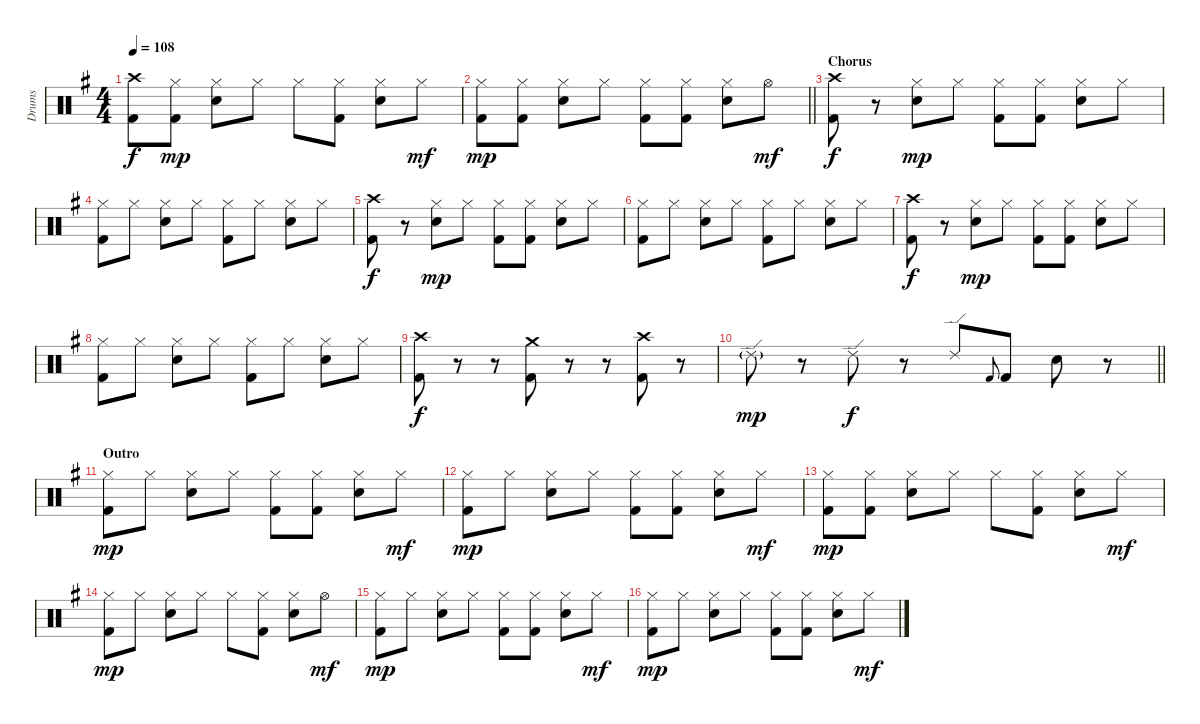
\track ("Drums" "Drums") {instrument percussion}
\staff {score}
\articulation defaults
\ts (4 4)
\tempo 108
\clef neutral
\ks g
("Crash high (hit)" "Kick (hit) 2").8{dy f} ("Hi-Hat (closed)" "Kick (hit) 2").8{dy mp} ("Hi-Hat (closed)" "Snare (hit) 2").8 "Hi-Hat (closed)".8 "Hi-Hat (closed)".8 ("Hi-Hat (closed)" "Kick (hit) 2").8 ("Hi-Hat (closed)" "Snare (hit) 2").8 "Hi-Hat (closed)".8{dy mf} |
\barLineRight lightlight
("Hi-Hat (closed)" "Kick (hit) 2").8{dy mp} ("Hi-Hat (closed)" "Kick (hit) 2").8 ("Hi-Hat (closed)" "Snare (hit) 2").8 "Hi-Hat (closed)".8 ("Hi-Hat (closed)" "Kick (hit) 2").8 ("Hi-Hat (closed)" "Kick (hit) 2").8 ("Hi-Hat (closed)" "Snare (hit) 2").8 "Hi-Hat (open)".8{dy mf} |
\section ("" "Chorus")
("Crash high (hit)" "Kick (hit) 2").8{dy f} r.8 ("Hi-Hat (closed)" "Snare (hit) 2").8{dy mp} "Hi-Hat (closed)".8 ("Hi-Hat (closed)" "Kick (hit) 2").8 ("Hi-Hat (closed)" "Kick (hit) 2").8 ("Hi-Hat (closed)" "Snare (hit) 2").8 "Hi-Hat (closed)".8 |
("Hi-Hat (closed)" "Kick (hit) 2").8 "Hi-Hat (closed)".8 ("Hi-Hat (closed)" "Snare (hit) 2").8 "Hi-Hat (closed)".8 ("Hi-Hat (closed)" "Kick (hit) 2").8 "Hi-Hat (closed)".8 ("Hi-Hat (closed)" "Snare (hit) 2").8 "Hi-Hat (closed)".8 |
("Crash high (hit)" "Kick (hit) 2").8{dy f} r.8 ("Hi-Hat (closed)" "Snare (hit) 2").8{dy mp} "Hi-Hat (closed)".8 ("Hi-Hat (closed)" "Kick (hit) 2").8 ("Hi-Hat (closed)" "Kick (hit) 2").8 ("Hi-Hat (closed)" "Snare (hit) 2").8 "Hi-Hat (closed)".8 |
("Hi-Hat (closed)" "Kick (hit) 2").8 "Hi-Hat (closed)".8 ("Hi-Hat (closed)" "Snare (hit) 2").8 "Hi-Hat (closed)".8 ("Hi-Hat (closed)" "Kick (hit) 2").8 "Hi-Hat (closed)".8 ("Hi-Hat (closed)" "Snare (hit) 2").8 "Hi-Hat (closed)".8 |
("Crash high (hit)" "Kick (hit) 2").8{dy f} r.8 ("Hi-Hat (closed)" "Snare (hit) 2").8{dy mp} "Hi-Hat (closed)".8 ("Hi-Hat (closed)" "Kick (hit) 2").8 ("Hi-Hat (closed)" "Kick (hit) 2").8 ("Hi-Hat (closed)" "Snare (hit) 2").8 "Hi-Hat (closed)".8 |
("Hi-Hat (closed)" "Kick (hit) 2").8 "Hi-Hat (closed)".8 ("Hi-Hat (closed)" "Snare (hit) 2").8 "Hi-Hat (closed)".8 ("Hi-Hat (closed)" "Kick (hit) 2").8 "Hi-Hat (closed)".8 ("Hi-Hat (closed)" "Snare (hit) 2").8 "Hi-Hat (closed)".8 |
("Crash high (hit)" "Kick (hit) 2").8{dy f} r.8 r.8 ("Crash medium (hit)" "Kick (hit) 2").8 r.8 r.8 ("Crash high (hit)" "Kick (hit) 2").8 r.8 |
\barLineRight lightlight "Ride (edge) 2"{g}.8{dy mp}
r.8 "Ride (edge) 2".8{dy f} r.8 "Ride (edge) 2".8 "Kick (hit) 2".8{gr onbeat} "Kick (hit) 2".8 "Snare (hit) 2".8 r.8 |
\section ("" "Outro")
("Hi-Hat (closed)" "Kick (hit) 2").8{dy mp} "Hi-Hat (closed)".8 ("Hi-Hat (closed)" "Snare (hit) 2").8 "Hi-Hat (closed)".8 ("Hi-Hat (closed)" "Kick (hit) 2").8 ("Hi-Hat (closed)" "Kick (hit) 2").8 ("Hi-Hat (closed)" "Snare (hit) 2").8 "Hi-Hat (closed)".8{dy mf} |
("Hi-Hat (closed)" "Kick (hit) 2").8{dy mp} "Hi-Hat (closed)".8 ("Hi-Hat (closed)" "Snare (hit) 2").8 "Hi-Hat (closed)".8 ("Hi-Hat (closed)" "Kick (hit) 2").8 ("Hi-Hat (closed)" "Kick (hit) 2").8 ("Hi-Hat (closed)" "Snare (hit) 2").8 "Hi-Hat (closed)".8{dy mf} |
("Hi-Hat (closed)" "Kick (hit) 2").8{dy mp} ("Hi-Hat (closed)" "Kick (hit) 2").8 ("Hi-Hat (closed)" "Snare (hit) 2").8 "Hi-Hat (closed)".8 "Hi-Hat (closed)".8 ("Hi-Hat (closed)" "Kick (hit) 2").8 ("Hi-Hat (closed)" "Snare (hit) 2").8 "Hi-Hat (closed)".8{dy mf} |
("Hi-Hat (closed)" "Kick (hit) 2").8{dy mp} "Hi-Hat (closed)".8 ("Hi-Hat (closed)" "Snare (hit) 2").8 "Hi-Hat (closed)".8 "Hi-Hat (closed)".8 ("Hi-Hat (closed)" "Kick (hit) 2").8 ("Hi-Hat (closed)" "Snare (hit) 2").8 "Hi-Hat (open)".8{dy mf} |
("Hi-Hat (closed)" "Kick (hit) 2").8{dy mp} "Hi-Hat (closed)".8 ("Hi-Hat (closed)" "Snare (hit) 2").8 "Hi-Hat (closed)".8 ("Hi-Hat (closed)" "Kick (hit) 2").8 ("Hi-Hat (closed)" "Kick (hit) 2").8 ("Hi-Hat (closed)" "Snare (hit) 2").8 "Hi-Hat (closed)".8{dy mf} |
("Hi-Hat (closed)" "Kick (hit) 2").8{dy mp} "Hi-Hat (closed)".8 ("Hi-Hat (closed)" "Snare (hit) 2").8 "Hi-Hat (closed)".8 ("Hi-Hat (closed)" "Kick (hit) 2").8 ("Hi-Hat (closed)" "Kick (hit) 2").8 ("Hi-Hat (closed)" "Snare (hit) 2").8 "Hi-Hat (closed)".8{dy mf}
